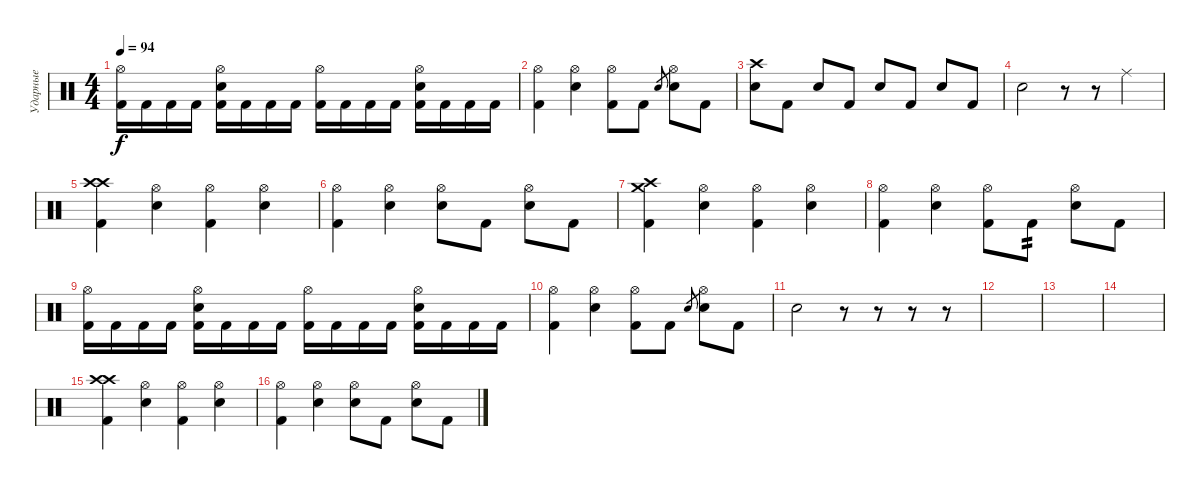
\track ("Ударные" "Ударные") {instrument percussion}
\staff {score}
\articulation defaults
\ts (4 4)
\tempo 94
\clef neutral
\ks c
("Hi-Hat (open)" "Kick (hit) 2").16{dy f} "Kick (hit) 2".16 "Kick (hit) 2".16 "Kick (hit) 2".16 ("Hi-Hat (open)" "Electric Snare (hit)" "Kick (hit) 2").16 "Kick (hit) 2".16 "Kick (hit) 2".16 "Kick (hit) 2".16 ("Hi-Hat (open)" "Kick (hit) 2").16 "Kick (hit) 2".16 "Kick (hit) 2".16 "Kick (hit) 2".16 ("Hi-Hat (open)" "Electric Snare (hit)" "Kick (hit) 2").16 "Kick (hit) 2".16 "Kick (hit) 2".16 "Kick (hit) 2".16 |
("Hi-Hat (open)" "Kick (hit) 2").4 ("Hi-Hat (open)" "Electric Snare (hit)").4 ("Hi-Hat (open)" "Kick (hit) 2").8 "Kick (hit) 2".8 "Electric Snare (hit)".8{gr} ("Hi-Hat (open)" "Electric Snare (hit)").8 "Kick (hit) 2".8 |
("Crash high (hit)" "Electric Snare (hit)").8 "Kick (hit) 2".8 "Electric Snare (hit)".8 "Kick (hit) 2".8 "Electric Snare (hit)".8 "Kick (hit) 2".8 "Electric Snare (hit)".8 "Kick (hit) 2".8 |
"Electric Snare (hit)".2 r.8 r.8 "Ride (middle)".4 |
("Crash high (hit)" "Crash high (hit)" "Kick (hit) 2").4 ("Hi-Hat (open)" "Electric Snare (hit)").4 ("Hi-Hat (open)" "Kick (hit) 2").4 ("Hi-Hat (open)" "Electric Snare (hit)").4 |
("Hi-Hat (open)" "Kick (hit) 2").4 ("Hi-Hat (open)" "Electric Snare (hit)").4 ("Hi-Hat (open)" "Electric Snare (hit)").8 "Kick (hit) 2".8 ("Hi-Hat (open)" "Electric Snare (hit)").8 "Kick (hit) 2".8 |
("Crash medium (hit)" "Crash high (hit)" "Kick (hit) 2").4 ("Hi-Hat (open)" "Electric Snare (hit)").4 ("Hi-Hat (open)" "Kick (hit) 2").4 ("Hi-Hat (open)" "Electric Snare (hit)").4 |
("Hi-Hat (open)" "Kick (hit) 2").4 ("Hi-Hat (open)" "Electric Snare (hit)").4 ("Hi-Hat (open)" "Kick (hit) 2").8 "Kick (hit) 2".8{tp 2} ("Hi-Hat (open)" "Electric Snare (hit)").8 "Kick (hit) 2".8 |
("Hi-Hat (open)" "Kick (hit) 2").16 "Kick (hit) 2".16 "Kick (hit) 2".16 "Kick (hit) 2".16 ("Hi-Hat (open)" "Electric Snare (hit)" "Kick (hit) 2").16 "Kick (hit) 2".16 "Kick (hit) 2".16 "Kick (hit) 2".16 ("Hi-Hat (open)" "Kick (hit) 2").16 "Kick (hit) 2".16 "Kick (hit) 2".16 "Kick (hit) 2".16 ("Hi-Hat (open)" "Electric Snare (hit)" "Kick (hit) 2").16 "Kick (hit) 2".16 "Kick (hit) 2".16 "Kick (hit) 2".16 |
("Hi-Hat (open)" "Kick (hit) 2").4 ("Hi-Hat (open)" "Electric Snare (hit)").4 ("Hi-Hat (open)" "Kick (hit) 2").8 "Kick (hit) 2".8 "Electric Snare (hit)".8{gr} ("Hi-Hat (open)" "Electric Snare (hit)").8 "Kick (hit) 2".8 |
"Electric Snare (hit)".2 r.8 r.8 r.8 r.8 |
|
|
|
("Crash high (hit)" "Crash high (hit)" "Kick (hit) 2").4 ("Hi-Hat (open)" "Electric Snare (hit)").4 ("Hi-Hat (open)" "Kick (hit) 2").4 ("Hi-Hat (open)" "Electric Snare (hit)").4 |
("Hi-Hat (open)" "Kick (hit) 2").4 ("Hi-Hat (open)" "Electric Snare (hit)").4 ("Hi-Hat (open)" "Electric Snare (hit)").8 "Kick (hit) 2".8 ("Hi-Hat (open)" "Electric Snare (hit)").8 "Kick (hit) 2".8
